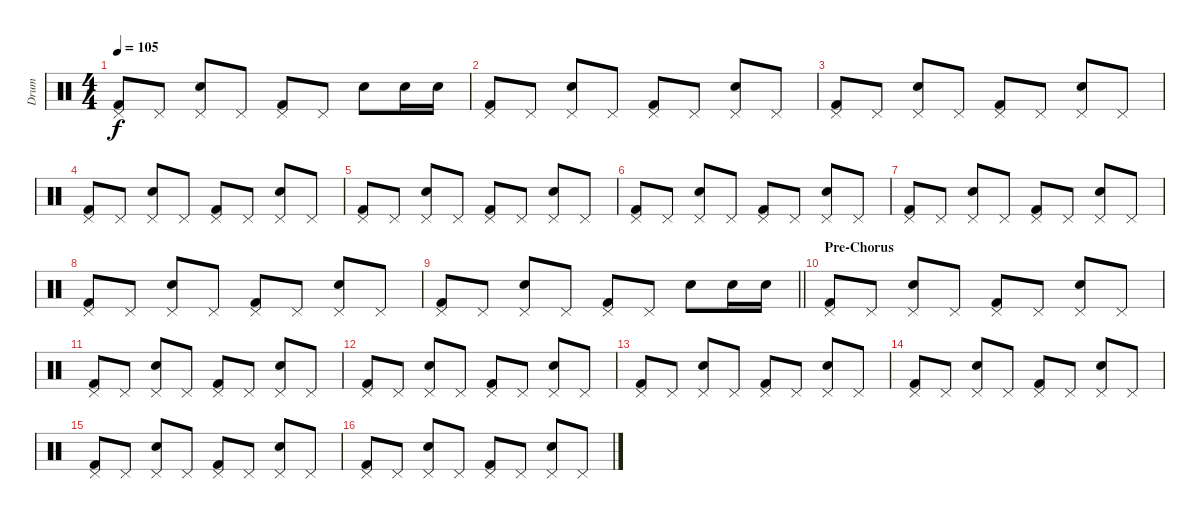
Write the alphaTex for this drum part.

\track ("Drum" "Drum") {instrument percussion}
\staff {score}
\articulation defaults
\ts (4 4)
\tempo 105
\clef neutral
\ks c
("Kick (hit) 2" "Pedal Hi-Hat (hit)").8{dy f} "Pedal Hi-Hat (hit)".8 ("Electric Snare (hit)" "Pedal Hi-Hat (hit)").8 "Pedal Hi-Hat (hit)".8 ("Kick (hit) 2" "Pedal Hi-Hat (hit)").8 "Pedal Hi-Hat (hit)".8 "Electric Snare (hit)".8 "Electric Snare (hit)".16 "Electric Snare (hit)".16 |
("Kick (hit) 2" "Pedal Hi-Hat (hit)").8 "Pedal Hi-Hat (hit)".8 ("Electric Snare (hit)" "Pedal Hi-Hat (hit)").8 "Pedal Hi-Hat (hit)".8 ("Kick (hit) 2" "Pedal Hi-Hat (hit)").8 "Pedal Hi-Hat (hit)".8 ("Electric Snare (hit)" "Pedal Hi-Hat (hit)").8 "Pedal Hi-Hat (hit)".8 |
("Kick (hit) 2" "Pedal Hi-Hat (hit)").8 "Pedal Hi-Hat (hit)".8 ("Electric Snare (hit)" "Pedal Hi-Hat (hit)").8 "Pedal Hi-Hat (hit)".8 ("Kick (hit) 2" "Pedal Hi-Hat (hit)").8 "Pedal Hi-Hat (hit)".8 ("Electric Snare (hit)" "Pedal Hi-Hat (hit)").8 "Pedal Hi-Hat (hit)".8 |
("Kick (hit) 2" "Pedal Hi-Hat (hit)").8 "Pedal Hi-Hat (hit)".8 ("Electric Snare (hit)" "Pedal Hi-Hat (hit)").8 "Pedal Hi-Hat (hit)".8 ("Kick (hit) 2" "Pedal Hi-Hat (hit)").8 "Pedal Hi-Hat (hit)".8 ("Electric Snare (hit)" "Pedal Hi-Hat (hit)").8 "Pedal Hi-Hat (hit)".8 |
("Kick (hit) 2" "Pedal Hi-Hat (hit)").8 "Pedal Hi-Hat (hit)".8 ("Electric Snare (hit)" "Pedal Hi-Hat (hit)").8 "Pedal Hi-Hat (hit)".8 ("Kick (hit) 2" "Pedal Hi-Hat (hit)").8 "Pedal Hi-Hat (hit)".8 ("Electric Snare (hit)" "Pedal Hi-Hat (hit)").8 "Pedal Hi-Hat (hit)".8 |
("Kick (hit) 2" "Pedal Hi-Hat (hit)").8 "Pedal Hi-Hat (hit)".8 ("Electric Snare (hit)" "Pedal Hi-Hat (hit)").8 "Pedal Hi-Hat (hit)".8 ("Kick (hit) 2" "Pedal Hi-Hat (hit)").8 "Pedal Hi-Hat (hit)".8 ("Electric Snare (hit)" "Pedal Hi-Hat (hit)").8 "Pedal Hi-Hat (hit)".8 |
("Kick (hit) 2" "Pedal Hi-Hat (hit)").8 "Pedal Hi-Hat (hit)".8 ("Electric Snare (hit)" "Pedal Hi-Hat (hit)").8 "Pedal Hi-Hat (hit)".8 ("Kick (hit) 2" "Pedal Hi-Hat (hit)").8 "Pedal Hi-Hat (hit)".8 ("Electric Snare (hit)" "Pedal Hi-Hat (hit)").8 "Pedal Hi-Hat (hit)".8 |
("Kick (hit) 2" "Pedal Hi-Hat (hit)").8 "Pedal Hi-Hat (hit)".8 ("Electric Snare (hit)" "Pedal Hi-Hat (hit)").8 "Pedal Hi-Hat (hit)".8 ("Kick (hit) 2" "Pedal Hi-Hat (hit)").8 "Pedal Hi-Hat (hit)".8 ("Electric Snare (hit)" "Pedal Hi-Hat (hit)").8 "Pedal Hi-Hat (hit)".8 |
\barLineRight lightlight
("Kick (hit) 2" "Pedal Hi-Hat (hit)").8 "Pedal Hi-Hat (hit)".8 ("Electric Snare (hit)" "Pedal Hi-Hat (hit)").8 "Pedal Hi-Hat (hit)".8 ("Kick (hit) 2" "Pedal Hi-Hat (hit)").8 "Pedal Hi-Hat (hit)".8 "Electric Snare (hit)".8 "Electric Snare (hit)".16 "Electric Snare (hit)".16 |
\section ("" "Pre-Chorus")
("Kick (hit) 2" "Pedal Hi-Hat (hit)").8 "Pedal Hi-Hat (hit)".8 ("Electric Snare (hit)" "Pedal Hi-Hat (hit)").8 "Pedal Hi-Hat (hit)".8 ("Kick (hit) 2" "Pedal Hi-Hat (hit)").8 "Pedal Hi-Hat (hit)".8 ("Electric Snare (hit)" "Pedal Hi-Hat (hit)").8 "Pedal Hi-Hat (hit)".8 |
("Kick (hit) 2" "Pedal Hi-Hat (hit)").8 "Pedal Hi-Hat (hit)".8 ("Electric Snare (hit)" "Pedal Hi-Hat (hit)").8 "Pedal Hi-Hat (hit)".8 ("Kick (hit) 2" "Pedal Hi-Hat (hit)").8 "Pedal Hi-Hat (hit)".8 ("Electric Snare (hit)" "Pedal Hi-Hat (hit)").8 "Pedal Hi-Hat (hit)".8 |
("Kick (hit) 2" "Pedal Hi-Hat (hit)").8 "Pedal Hi-Hat (hit)".8 ("Electric Snare (hit)" "Pedal Hi-Hat (hit)").8 "Pedal Hi-Hat (hit)".8 ("Kick (hit) 2" "Pedal Hi-Hat (hit)").8 "Pedal Hi-Hat (hit)".8 ("Electric Snare (hit)" "Pedal Hi-Hat (hit)").8 "Pedal Hi-Hat (hit)".8 |
("Kick (hit) 2" "Pedal Hi-Hat (hit)").8 "Pedal Hi-Hat (hit)".8 ("Electric Snare (hit)" "Pedal Hi-Hat (hit)").8 "Pedal Hi-Hat (hit)".8 ("Kick (hit) 2" "Pedal Hi-Hat (hit)").8 "Pedal Hi-Hat (hit)".8 ("Electric Snare (hit)" "Pedal Hi-Hat (hit)").8 "Pedal Hi-Hat (hit)".8 |
("Kick (hit) 2" "Pedal Hi-Hat (hit)").8 "Pedal Hi-Hat (hit)".8 ("Electric Snare (hit)" "Pedal Hi-Hat (hit)").8 "Pedal Hi-Hat (hit)".8 ("Kick (hit) 2" "Pedal Hi-Hat (hit)").8 "Pedal Hi-Hat (hit)".8 ("Electric Snare (hit)" "Pedal Hi-Hat (hit)").8 "Pedal Hi-Hat (hit)".8 |
("Kick (hit) 2" "Pedal Hi-Hat (hit)").8 "Pedal Hi-Hat (hit)".8 ("Electric Snare (hit)" "Pedal Hi-Hat (hit)").8 "Pedal Hi-Hat (hit)".8 ("Kick (hit) 2" "Pedal Hi-Hat (hit)").8 "Pedal Hi-Hat (hit)".8 ("Electric Snare (hit)" "Pedal Hi-Hat (hit)").8 "Pedal Hi-Hat (hit)".8 |
("Kick (hit) 2" "Pedal Hi-Hat (hit)").8 "Pedal Hi-Hat (hit)".8 ("Electric Snare (hit)" "Pedal Hi-Hat (hit)").8 "Pedal Hi-Hat (hit)".8 ("Kick (hit) 2" "Pedal Hi-Hat (hit)").8 "Pedal Hi-Hat (hit)".8 ("Electric Snare (hit)" "Pedal Hi-Hat (hit)").8 "Pedal Hi-Hat (hit)".8
